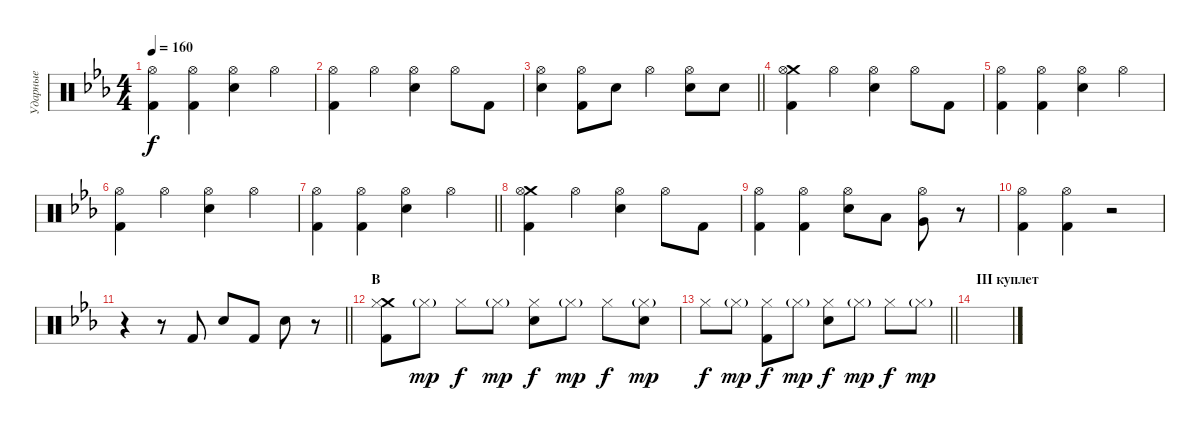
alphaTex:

\track ("Ударные" "Ударные") {instrument percussion}
\staff {score}
\articulation defaults
\ts (4 4)
\tempo 160
\clef neutral
\ks cminor
("Kick (hit) 2" "Hi-Hat (open)").4{dy f} ("Kick (hit) 2" "Hi-Hat (open)").4 ("Electric Snare (hit)" "Hi-Hat (open)").4 "Hi-Hat (open)".4 |
("Kick (hit) 2" "Hi-Hat (open)").4 "Hi-Hat (open)".4 ("Electric Snare (hit)" "Hi-Hat (open)").4 "Hi-Hat (open)".8 "Kick (hit) 2".8 |
\barLineRight lightlight
("Electric Snare (hit)" "Hi-Hat (open)").4 ("Kick (hit) 2" "Hi-Hat (open)").8 "Electric Snare (hit)".8 "Hi-Hat (open)".4 ("Electric Snare (hit)" "Hi-Hat (open)").8 "Electric Snare (hit)".8 |
("Crash medium (hit)" "Kick (hit) 2" "Hi-Hat (open)").4 "Hi-Hat (open)".4 ("Electric Snare (hit)" "Hi-Hat (open)").4 "Hi-Hat (open)".8 "Kick (hit) 2".8 |
("Kick (hit) 2" "Hi-Hat (open)").4 ("Kick (hit) 2" "Hi-Hat (open)").4 ("Electric Snare (hit)" "Hi-Hat (open)").4 "Hi-Hat (open)".4 |
("Kick (hit) 2" "Hi-Hat (open)").4 "Hi-Hat (open)".4 ("Electric Snare (hit)" "Hi-Hat (open)").4 "Hi-Hat (open)".4 |
\barLineRight lightlight
("Kick (hit) 2" "Hi-Hat (open)").4 ("Kick (hit) 2" "Hi-Hat (open)").4 ("Electric Snare (hit)" "Hi-Hat (open)").4 "Hi-Hat (open)".4 |
("Crash medium (hit)" "Kick (hit) 2" "Hi-Hat (open)").4 "Hi-Hat (open)".4 ("Electric Snare (hit)" "Hi-Hat (open)").4 "Hi-Hat (open)".8 "Kick (hit) 2".8 |
("Kick (hit) 2" "Hi-Hat (open)").4 ("Kick (hit) 2" "Hi-Hat (open)").4 ("Electric Snare (hit)" "Hi-Hat (open)").8 "Low Tom (hit)".8 ("Very Low Tom (hit)" "Hi-Hat (open)").8 r.8 |
("Kick (hit) 2" "Hi-Hat (open)").4 ("Kick (hit) 2" "Hi-Hat (open)").4 r.2 |
\barLineRight lightlight
r.4 r.8 "Kick (hit) 2".8 "Electric Snare (hit)".8 "Kick (hit) 2".8 "Electric Snare (hit)".8 r.8 |
\section ("" "B")
("Crash medium (hit)" "Kick (hit) 2" "Hi-Hat (closed)").8 "Hi-Hat (closed)"{g}.8{dy mp} "Hi-Hat (closed)".8{dy f} "Hi-Hat (closed)"{g}.8{dy mp} ("Electric Snare (hit)" "Hi-Hat (closed)").8{dy f} "Hi-Hat (closed)"{g}.8{dy mp} "Hi-Hat (closed)".8{dy f} ("Electric Snare (hit)" "Hi-Hat (closed)"{g}).8{dy mp} |
\barLineRight lightlight "Hi-Hat (closed)".8{dy f} "Hi-Hat (closed)"{g}.8{dy mp}
("Kick (hit) 2" "Hi-Hat (closed)").8{dy f} "Hi-Hat (closed)"{g}.8{dy mp} ("Electric Snare (hit)" "Hi-Hat (closed)").8{dy f} "Hi-Hat (closed)"{g}.8{dy mp} "Hi-Hat (closed)".8{dy f} "Hi-Hat (closed)"{g}.8{dy mp} |
\section ("" "III куплет")
